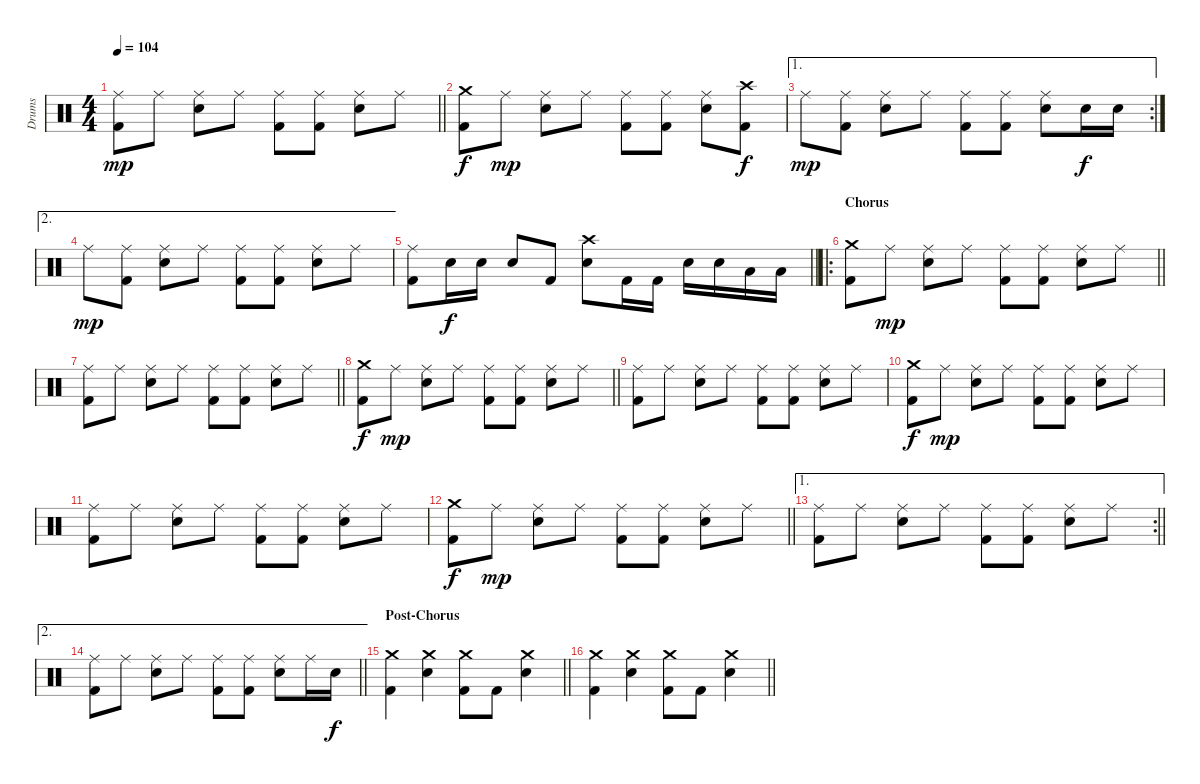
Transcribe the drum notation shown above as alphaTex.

\track ("Drums" "Drums") {instrument percussion}
\staff {score}
\articulation defaults
\ts (4 4)
\tempo 104
\clef neutral
\barLineRight lightlight
\ks c
("Kick (hit) 2" "Ride (middle)").8{dy mp} "Ride (middle)".8 ("Electric Snare (hit)" "Ride (middle)").8 "Ride (middle)".8 ("Kick (hit) 2" "Ride (middle)").8 ("Kick (hit) 2" "Ride (middle)").8 ("Electric Snare (hit)" "Ride (middle)").8 "Ride (middle)".8 |
("Kick (hit) 2" "Crash medium (hit)").8{dy f} "Ride (middle)".8{dy mp} ("Electric Snare (hit)" "Ride (middle)").8 "Ride (middle)".8 ("Kick (hit) 2" "Ride (middle)").8 ("Kick (hit) 2" "Ride (middle)").8 ("Electric Snare (hit)" "Ride (middle)").8 ("Kick (hit) 2" "Crash high (hit)").8{dy f} |
\ae 1
\rc 2 "Ride (middle)".8{dy mp}
("Kick (hit) 2" "Ride (middle)").8 ("Electric Snare (hit)" "Ride (middle)").8 "Ride (middle)".8 ("Kick (hit) 2" "Ride (middle)").8 ("Kick (hit) 2" "Ride (middle)").8 ("Electric Snare (hit)" "Ride (middle)").8 "Electric Snare (hit)".16{dy f} "Electric Snare (hit)".16 |
\ae 2 "Ride (middle)".8{dy mp}
("Kick (hit) 2" "Ride (middle)").8 ("Electric Snare (hit)" "Ride (middle)").8 "Ride (middle)".8 ("Kick (hit) 2" "Ride (middle)").8 ("Kick (hit) 2" "Ride (middle)").8 ("Electric Snare (hit)" "Ride (middle)").8 "Ride (middle)".8 |
\barLineRight lightlight
("Kick (hit) 2" "Ride (middle)").8 "Electric Snare (hit)".16{dy f} "Electric Snare (hit)".16 "Electric Snare (hit)".8 "Kick (hit) 2".8 ("Electric Snare (hit)" "Crash high (hit)").8 "Kick (hit) 2".16 "Kick (hit) 2".16 "Electric Snare (hit)".16 "Electric Snare (hit)".16 "Low Tom (hit)".16 "Low Tom (hit)".16 |
\ro
\section ("" "Chorus")
\barLineRight lightlight
("Kick (hit) 2" "Crash medium (hit)").8 "Ride (middle)".8{dy mp} ("Electric Snare (hit)" "Ride (middle)").8 "Ride (middle)".8 ("Kick (hit) 2" "Ride (middle)").8 ("Kick (hit) 2" "Ride (middle)").8 ("Electric Snare (hit)" "Ride (middle)").8 "Ride (middle)".8 |
\barLineRight lightlight
("Kick (hit) 2" "Ride (middle)").8 "Ride (middle)".8 ("Electric Snare (hit)" "Ride (middle)").8 "Ride (middle)".8 ("Kick (hit) 2" "Ride (middle)").8 ("Kick (hit) 2" "Ride (middle)").8 ("Electric Snare (hit)" "Ride (middle)").8 "Ride (middle)".8 |
\barLineRight lightlight
("Kick (hit) 2" "Crash medium (hit)").8{dy f} "Ride (middle)".8{dy mp} ("Electric Snare (hit)" "Ride (middle)").8 "Ride (middle)".8 ("Kick (hit) 2" "Ride (middle)").8 ("Kick (hit) 2" "Ride (middle)").8 ("Electric Snare (hit)" "Ride (middle)").8 "Ride (middle)".8 |
("Kick (hit) 2" "Ride (middle)").8 "Ride (middle)".8 ("Electric Snare (hit)" "Ride (middle)").8 "Ride (middle)".8 ("Kick (hit) 2" "Ride (middle)").8 ("Kick (hit) 2" "Ride (middle)").8 ("Electric Snare (hit)" "Ride (middle)").8 "Ride (middle)".8 |
("Kick (hit) 2" "Crash medium (hit)").8{dy f} "Ride (middle)".8{dy mp} ("Electric Snare (hit)" "Ride (middle)").8 "Ride (middle)".8 ("Kick (hit) 2" "Ride (middle)").8 ("Kick (hit) 2" "Ride (middle)").8 ("Electric Snare (hit)" "Ride (middle)").8 "Ride (middle)".8 |
("Kick (hit) 2" "Ride (middle)").8 "Ride (middle)".8 ("Electric Snare (hit)" "Ride (middle)").8 "Ride (middle)".8 ("Kick (hit) 2" "Ride (middle)").8 ("Kick (hit) 2" "Ride (middle)").8 ("Electric Snare (hit)" "Ride (middle)").8 "Ride (middle)".8 |
\barLineRight lightlight
("Kick (hit) 2" "Crash medium (hit)").8{dy f} "Ride (middle)".8{dy mp} ("Electric Snare (hit)" "Ride (middle)").8 "Ride (middle)".8 ("Kick (hit) 2" "Ride (middle)").8 ("Kick (hit) 2" "Ride (middle)").8 ("Electric Snare (hit)" "Ride (middle)").8 "Ride (middle)".8 |
\ae 1
\rc 2
\barLineRight lightlight
("Kick (hit) 2" "Ride (middle)").8 "Ride (middle)".8 ("Electric Snare (hit)" "Ride (middle)").8 "Ride (middle)".8 ("Kick (hit) 2" "Ride (middle)").8 ("Kick (hit) 2" "Ride (middle)").8 ("Electric Snare (hit)" "Ride (middle)").8 "Ride (middle)".8 |
\ae 2
\barLineRight lightlight
("Kick (hit) 2" "Ride (middle)").8 "Ride (middle)".8 ("Electric Snare (hit)" "Ride (middle)").8 "Ride (middle)".8 ("Kick (hit) 2" "Ride (middle)").8 ("Kick (hit) 2" "Ride (middle)").8 ("Electric Snare (hit)" "Ride (middle)").8 "Ride (middle)".16 "Electric Snare (hit)".16{dy f} |
\section ("" "Post-Chorus")
\barLineRight lightlight
("Kick (hit) 2" "Crash medium (hit)").4 ("Electric Snare (hit)" "Crash medium (hit)").4 ("Kick (hit) 2" "Crash medium (hit)").8 "Kick (hit) 2".8 ("Electric Snare (hit)" "Crash medium (hit)").4 |
\barLineRight lightlight
("Kick (hit) 2" "Crash medium (hit)").4 ("Electric Snare (hit)" "Crash medium (hit)").4 ("Kick (hit) 2" "Crash medium (hit)").8 "Kick (hit) 2".8 ("Electric Snare (hit)" "Crash medium (hit)").4
